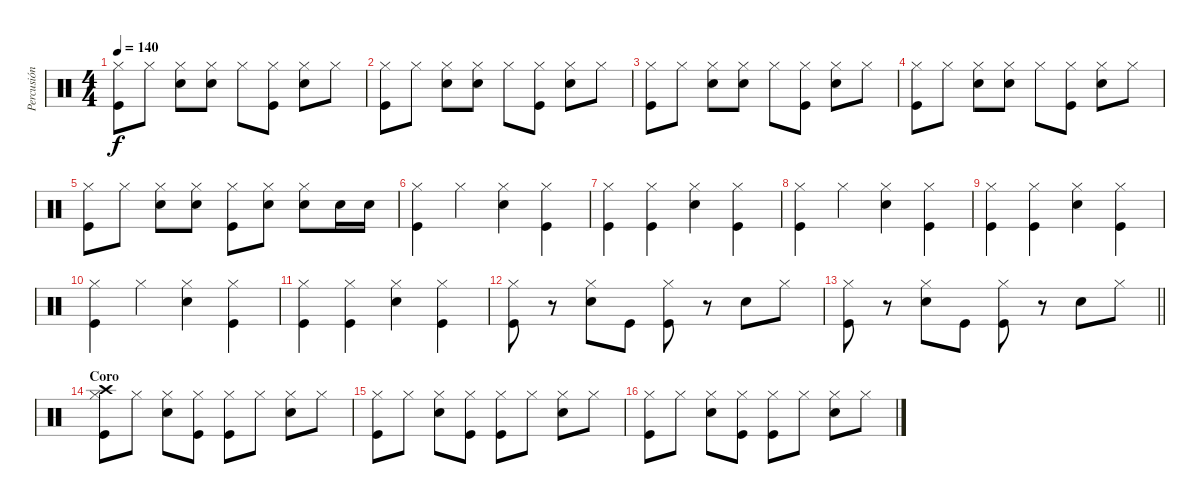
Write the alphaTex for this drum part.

\track ("Percusión" "Percusión") {instrument percussion}
\staff {score}
\articulation defaults
\ts (4 4)
\tempo 140
\clef neutral
\ks c
("Hi-Hat (closed)" "Kick (hit)").8{dy f} "Hi-Hat (closed)".8 ("Snare (hit) 2" "Hi-Hat (closed)").8 ("Hi-Hat (closed)" "Snare (hit) 2").8 "Hi-Hat (closed)".8 ("Kick (hit)" "Hi-Hat (closed)").8 ("Snare (hit) 2" "Hi-Hat (closed)").8 "Hi-Hat (closed)".8 |
("Hi-Hat (closed)" "Kick (hit)").8 "Hi-Hat (closed)".8 ("Snare (hit) 2" "Hi-Hat (closed)").8 ("Hi-Hat (closed)" "Snare (hit) 2").8 "Hi-Hat (closed)".8 ("Kick (hit)" "Hi-Hat (closed)").8 ("Snare (hit) 2" "Hi-Hat (closed)").8 "Hi-Hat (closed)".8 |
("Hi-Hat (closed)" "Kick (hit)").8 "Hi-Hat (closed)".8 ("Snare (hit) 2" "Hi-Hat (closed)").8 ("Hi-Hat (closed)" "Snare (hit) 2").8 "Hi-Hat (closed)".8 ("Kick (hit)" "Hi-Hat (closed)").8 ("Snare (hit) 2" "Hi-Hat (closed)").8 "Hi-Hat (closed)".8 |
("Hi-Hat (closed)" "Kick (hit)").8 "Hi-Hat (closed)".8 ("Snare (hit) 2" "Hi-Hat (closed)").8 ("Hi-Hat (closed)" "Snare (hit) 2").8 "Hi-Hat (closed)".8 ("Kick (hit)" "Hi-Hat (closed)").8 ("Snare (hit) 2" "Hi-Hat (closed)").8 "Hi-Hat (closed)".8 |
("Hi-Hat (closed)" "Kick (hit)").8 "Hi-Hat (closed)".8 ("Snare (hit) 2" "Hi-Hat (closed)").8 ("Hi-Hat (closed)" "Snare (hit) 2").8 ("Kick (hit)" "Hi-Hat (closed)").8 ("Snare (hit) 2" "Hi-Hat (closed)").8 ("Snare (hit) 2" "Hi-Hat (closed)").8 "Snare (hit) 2".16 "Snare (hit) 2".16 |
("Kick (hit)" "Hi-Hat (closed)").4 "Hi-Hat (closed)".4 ("Snare (hit) 2" "Hi-Hat (closed)").4 ("Kick (hit)" "Hi-Hat (closed)").4 |
("Kick (hit)" "Hi-Hat (closed)").4 ("Kick (hit)" "Hi-Hat (closed)").4 ("Snare (hit) 2" "Hi-Hat (closed)").4 ("Kick (hit)" "Hi-Hat (closed)").4 |
("Kick (hit)" "Hi-Hat (closed)").4 "Hi-Hat (closed)".4 ("Snare (hit) 2" "Hi-Hat (closed)").4 ("Kick (hit)" "Hi-Hat (closed)").4 |
("Kick (hit)" "Hi-Hat (closed)").4 ("Kick (hit)" "Hi-Hat (closed)").4 ("Snare (hit) 2" "Hi-Hat (closed)").4 ("Kick (hit)" "Hi-Hat (closed)").4 |
("Kick (hit)" "Hi-Hat (closed)").4 "Hi-Hat (closed)".4 ("Snare (hit) 2" "Hi-Hat (closed)").4 ("Kick (hit)" "Hi-Hat (closed)").4 |
("Kick (hit)" "Hi-Hat (closed)").4 ("Kick (hit)" "Hi-Hat (closed)").4 ("Snare (hit) 2" "Hi-Hat (closed)").4 ("Kick (hit)" "Hi-Hat (closed)").4 |
("Hi-Hat (closed)" "Kick (hit)").8 r.8 ("Snare (hit) 2" "Hi-Hat (closed)").8 "Kick (hit)".8 ("Kick (hit)" "Hi-Hat (closed)").8 r.8 "Snare (hit) 2".8 "Hi-Hat (closed)".8 |
\barLineRight lightlight
("Hi-Hat (closed)" "Kick (hit)").8 r.8 ("Snare (hit) 2" "Hi-Hat (closed)").8 "Kick (hit)".8 ("Kick (hit)" "Hi-Hat (closed)").8 r.8 "Snare (hit) 2".8 "Hi-Hat (closed)".8 |
\section ("" "Coro")
("Hi-Hat (closed)" "Crash high (hit)" "Kick (hit)").8 "Hi-Hat (closed)".8 ("Snare (hit) 2" "Hi-Hat (closed)").8 ("Kick (hit)" "Hi-Hat (closed)").8 ("Kick (hit)" "Hi-Hat (closed)").8 "Hi-Hat (closed)".8 ("Snare (hit) 2" "Hi-Hat (closed)").8 "Hi-Hat (closed)".8 |
("Hi-Hat (closed)" "Kick (hit)").8 "Hi-Hat (closed)".8 ("Snare (hit) 2" "Hi-Hat (closed)").8 ("Kick (hit)" "Hi-Hat (closed)").8 ("Kick (hit)" "Hi-Hat (closed)").8 "Hi-Hat (closed)".8 ("Snare (hit) 2" "Hi-Hat (closed)").8 "Hi-Hat (closed)".8 |
("Hi-Hat (closed)" "Kick (hit)").8 "Hi-Hat (closed)".8 ("Snare (hit) 2" "Hi-Hat (closed)").8 ("Kick (hit)" "Hi-Hat (closed)").8 ("Kick (hit)" "Hi-Hat (closed)").8 "Hi-Hat (closed)".8 ("Snare (hit) 2" "Hi-Hat (closed)").8 "Hi-Hat (closed)".8
